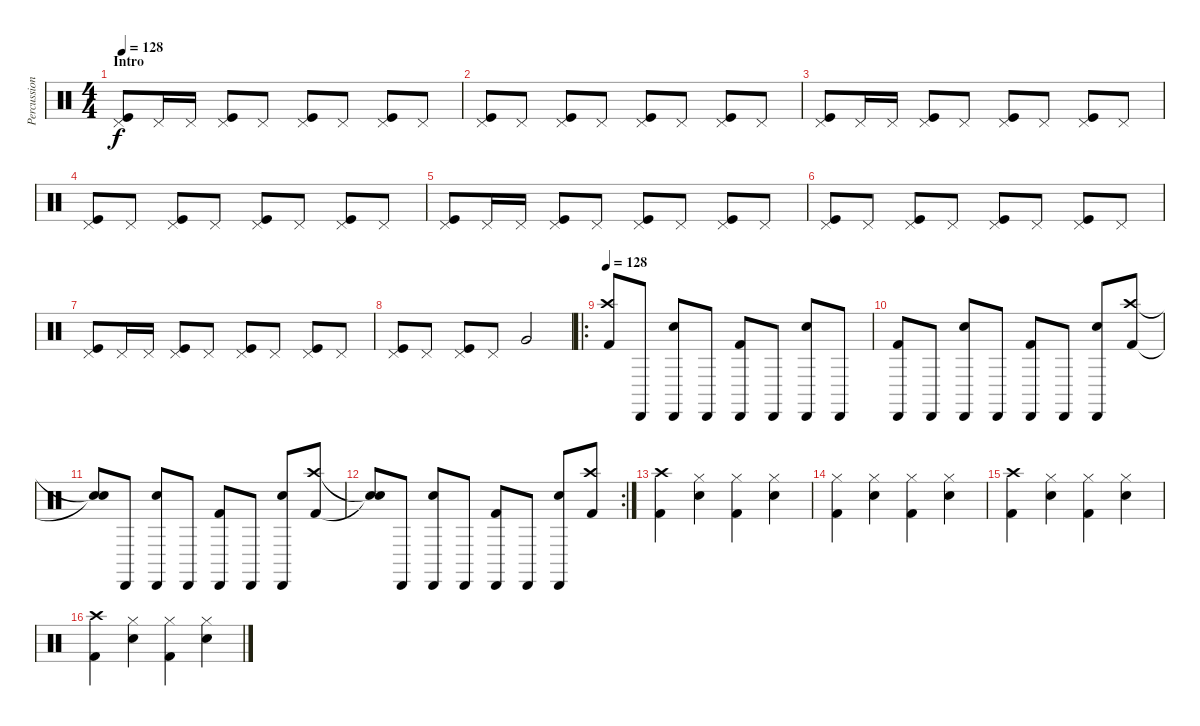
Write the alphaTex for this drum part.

\track ("Percussion" "Percussion") {instrument percussion}
\staff {score}
\articulation defaults
\ts (4 4)
\section ("" "Intro")
\tempo 128
\tempo 123
\tempo 128
\clef neutral
\ks c
("Kick (hit)" "Pedal Hi-Hat (hit)").8{dy f} "Pedal Hi-Hat (hit)".16 "Pedal Hi-Hat (hit)".16 ("Kick (hit)" "Pedal Hi-Hat (hit)").8 "Pedal Hi-Hat (hit)".8 ("Kick (hit)" "Pedal Hi-Hat (hit)").8 "Pedal Hi-Hat (hit)".8 ("Kick (hit)" "Pedal Hi-Hat (hit)").8 "Pedal Hi-Hat (hit)".8 |
("Kick (hit)" "Pedal Hi-Hat (hit)").8 "Pedal Hi-Hat (hit)".8 ("Kick (hit)" "Pedal Hi-Hat (hit)").8 "Pedal Hi-Hat (hit)".8 ("Kick (hit)" "Pedal Hi-Hat (hit)").8 "Pedal Hi-Hat (hit)".8 ("Kick (hit)" "Pedal Hi-Hat (hit)").8 "Pedal Hi-Hat (hit)".8 |
("Kick (hit)" "Pedal Hi-Hat (hit)").8 "Pedal Hi-Hat (hit)".16 "Pedal Hi-Hat (hit)".16 ("Kick (hit)" "Pedal Hi-Hat (hit)").8 "Pedal Hi-Hat (hit)".8 ("Kick (hit)" "Pedal Hi-Hat (hit)").8 "Pedal Hi-Hat (hit)".8 ("Kick (hit)" "Pedal Hi-Hat (hit)").8 "Pedal Hi-Hat (hit)".8 |
("Kick (hit)" "Pedal Hi-Hat (hit)").8 "Pedal Hi-Hat (hit)".8 ("Kick (hit)" "Pedal Hi-Hat (hit)").8 "Pedal Hi-Hat (hit)".8 ("Kick (hit)" "Pedal Hi-Hat (hit)").8 "Pedal Hi-Hat (hit)".8 ("Kick (hit)" "Pedal Hi-Hat (hit)").8 "Pedal Hi-Hat (hit)".8 |
("Kick (hit)" "Pedal Hi-Hat (hit)").8 "Pedal Hi-Hat (hit)".16 "Pedal Hi-Hat (hit)".16 ("Kick (hit)" "Pedal Hi-Hat (hit)").8 "Pedal Hi-Hat (hit)".8 ("Kick (hit)" "Pedal Hi-Hat (hit)").8 "Pedal Hi-Hat (hit)".8 ("Kick (hit)" "Pedal Hi-Hat (hit)").8 "Pedal Hi-Hat (hit)".8 |
("Kick (hit)" "Pedal Hi-Hat (hit)").8 "Pedal Hi-Hat (hit)".8 ("Kick (hit)" "Pedal Hi-Hat (hit)").8 "Pedal Hi-Hat (hit)".8 ("Kick (hit)" "Pedal Hi-Hat (hit)").8 "Pedal Hi-Hat (hit)".8 ("Kick (hit)" "Pedal Hi-Hat (hit)").8 "Pedal Hi-Hat (hit)".8 |
("Kick (hit)" "Pedal Hi-Hat (hit)").8 "Pedal Hi-Hat (hit)".16 "Pedal Hi-Hat (hit)".16 ("Kick (hit)" "Pedal Hi-Hat (hit)").8 "Pedal Hi-Hat (hit)".8 ("Kick (hit)" "Pedal Hi-Hat (hit)").8 "Pedal Hi-Hat (hit)".8 ("Kick (hit)" "Pedal Hi-Hat (hit)").8 "Pedal Hi-Hat (hit)".8 |
("Kick (hit)" "Pedal Hi-Hat (hit)").8 "Pedal Hi-Hat (hit)".8 ("Kick (hit)" "Pedal Hi-Hat (hit)").8 "Pedal Hi-Hat (hit)".8 "Very Low Tom (hit)".2 |
\ro
\tempo 128
("Kick (hit) 2" "Crash high (hit)").8 "Cabasa (hit)".8 ("Snare (hit) 2" "Cabasa (hit)").8 "Cabasa (hit)".8 ("Kick (hit) 2" "Cabasa (hit)").8 "Cabasa (hit)".8 ("Snare (hit) 2" "Cabasa (hit)").8 "Cabasa (hit)".8 |
("Kick (hit) 2" "Cabasa (hit)").8 "Cabasa (hit)".8 ("Snare (hit) 2" "Cabasa (hit)").8 "Cabasa (hit)".8 ("Kick (hit) 2" "Cabasa (hit)").8 "Cabasa (hit)".8 ("Snare (hit) 2" "Cabasa (hit)").8 ("Kick (hit) 2" "Crash high (hit)").8 |
("Snare (hit)"{t} "Snare (hit)"{t}).8 "Cabasa (hit)".8 ("Snare (hit) 2" "Cabasa (hit)").8 "Cabasa (hit)".8 ("Kick (hit) 2" "Cabasa (hit)").8 "Cabasa (hit)".8 ("Snare (hit) 2" "Cabasa (hit)").8 ("Kick (hit) 2" "Crash high (hit)").8 |
\rc 2
("Snare (hit)"{t} "Snare (hit)"{t}).8 "Cabasa (hit)".8 ("Snare (hit) 2" "Cabasa (hit)").8 "Cabasa (hit)".8 ("Kick (hit) 2" "Cabasa (hit)").8 "Cabasa (hit)".8 ("Snare (hit) 2" "Cabasa (hit)").8 ("Kick (hit) 2" "Crash high (hit)").8 |
("Kick (hit) 2" "Crash high (hit)").4 ("Snare (hit) 2" "Hi-Hat (closed)").4 ("Kick (hit) 2" "Hi-Hat (closed)").4 ("Snare (hit) 2" "Hi-Hat (closed)").4 |
("Kick (hit) 2" "Hi-Hat (closed)").4 ("Snare (hit) 2" "Hi-Hat (closed)").4 ("Kick (hit) 2" "Hi-Hat (closed)").4 ("Snare (hit) 2" "Hi-Hat (closed)").4 |
("Kick (hit) 2" "Crash high (hit)").4 ("Snare (hit) 2" "Hi-Hat (closed)").4 ("Kick (hit) 2" "Hi-Hat (closed)").4 ("Snare (hit) 2" "Hi-Hat (closed)").4 |
("Kick (hit) 2" "Crash high (hit)").4 ("Snare (hit) 2" "Hi-Hat (closed)").4 ("Kick (hit) 2" "Hi-Hat (closed)").4 ("Snare (hit) 2" "Hi-Hat (closed)").4
